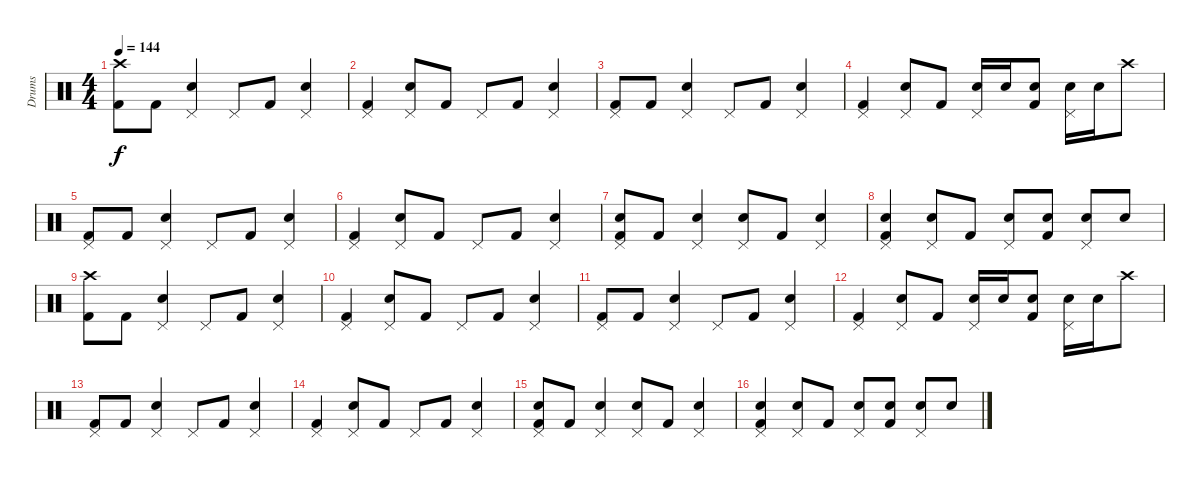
\track ("Drums" "Drums") {instrument percussion}
\staff {score}
\articulation defaults
\ts (4 4)
\tempo 144
\clef neutral
\ks c
("Crash high (hit)" "Kick (hit) 2").8{dy f} "Kick (hit) 2".8 ("Pedal Hi-Hat (hit)" "Electric Snare (hit)").4 "Pedal Hi-Hat (hit)".8 "Kick (hit) 2".8 ("Pedal Hi-Hat (hit)" "Electric Snare (hit)").4 |
("Kick (hit) 2" "Pedal Hi-Hat (hit)").4 ("Electric Snare (hit)" "Pedal Hi-Hat (hit)").8 "Kick (hit) 2".8 "Pedal Hi-Hat (hit)".8 "Kick (hit) 2".8 ("Electric Snare (hit)" "Pedal Hi-Hat (hit)").4 |
("Pedal Hi-Hat (hit)" "Kick (hit) 2").8 "Kick (hit) 2".8 ("Pedal Hi-Hat (hit)" "Electric Snare (hit)").4 "Pedal Hi-Hat (hit)".8 "Kick (hit) 2".8 ("Pedal Hi-Hat (hit)" "Electric Snare (hit)").4 |
("Kick (hit) 2" "Pedal Hi-Hat (hit)").4 ("Electric Snare (hit)" "Pedal Hi-Hat (hit)").8 "Kick (hit) 2".8 ("Electric Snare (hit)" "Pedal Hi-Hat (hit)").16 "Electric Snare (hit)".16 ("Electric Snare (hit)" "Kick (hit) 2").8 ("Electric Snare (hit)" "Pedal Hi-Hat (hit)").16 "Electric Snare (hit)".16 "Crash high (hit)".8 |
("Pedal Hi-Hat (hit)" "Kick (hit) 2").8 "Kick (hit) 2".8 ("Pedal Hi-Hat (hit)" "Electric Snare (hit)").4 "Pedal Hi-Hat (hit)".8 "Kick (hit) 2".8 ("Pedal Hi-Hat (hit)" "Electric Snare (hit)").4 |
("Kick (hit) 2" "Pedal Hi-Hat (hit)").4 ("Electric Snare (hit)" "Pedal Hi-Hat (hit)").8 "Kick (hit) 2".8 "Pedal Hi-Hat (hit)".8 "Kick (hit) 2".8 ("Electric Snare (hit)" "Pedal Hi-Hat (hit)").4 |
("Electric Snare (hit)" "Pedal Hi-Hat (hit)" "Kick (hit) 2").8 "Kick (hit) 2".8 ("Pedal Hi-Hat (hit)" "Electric Snare (hit)").4 ("Electric Snare (hit)" "Pedal Hi-Hat (hit)").8 "Kick (hit) 2".8 ("Pedal Hi-Hat (hit)" "Electric Snare (hit)").4 |
("Electric Snare (hit)" "Kick (hit) 2" "Pedal Hi-Hat (hit)").4 ("Electric Snare (hit)" "Pedal Hi-Hat (hit)").8 "Kick (hit) 2".8 ("Electric Snare (hit)" "Pedal Hi-Hat (hit)").8 ("Electric Snare (hit)" "Kick (hit) 2").8 ("Electric Snare (hit)" "Pedal Hi-Hat (hit)").8 "Electric Snare (hit)".8 |
("Crash high (hit)" "Kick (hit) 2").8 "Kick (hit) 2".8 ("Pedal Hi-Hat (hit)" "Electric Snare (hit)").4 "Pedal Hi-Hat (hit)".8 "Kick (hit) 2".8 ("Pedal Hi-Hat (hit)" "Electric Snare (hit)").4 |
("Kick (hit) 2" "Pedal Hi-Hat (hit)").4 ("Electric Snare (hit)" "Pedal Hi-Hat (hit)").8 "Kick (hit) 2".8 "Pedal Hi-Hat (hit)".8 "Kick (hit) 2".8 ("Electric Snare (hit)" "Pedal Hi-Hat (hit)").4 |
("Pedal Hi-Hat (hit)" "Kick (hit) 2").8 "Kick (hit) 2".8 ("Pedal Hi-Hat (hit)" "Electric Snare (hit)").4 "Pedal Hi-Hat (hit)".8 "Kick (hit) 2".8 ("Pedal Hi-Hat (hit)" "Electric Snare (hit)").4 |
("Kick (hit) 2" "Pedal Hi-Hat (hit)").4 ("Electric Snare (hit)" "Pedal Hi-Hat (hit)").8 "Kick (hit) 2".8 ("Electric Snare (hit)" "Pedal Hi-Hat (hit)").16 "Electric Snare (hit)".16 ("Electric Snare (hit)" "Kick (hit) 2").8 ("Electric Snare (hit)" "Pedal Hi-Hat (hit)").16 "Electric Snare (hit)".16 "Crash high (hit)".8 |
("Pedal Hi-Hat (hit)" "Kick (hit) 2").8 "Kick (hit) 2".8 ("Pedal Hi-Hat (hit)" "Electric Snare (hit)").4 "Pedal Hi-Hat (hit)".8 "Kick (hit) 2".8 ("Pedal Hi-Hat (hit)" "Electric Snare (hit)").4 |
("Kick (hit) 2" "Pedal Hi-Hat (hit)").4 ("Electric Snare (hit)" "Pedal Hi-Hat (hit)").8 "Kick (hit) 2".8 "Pedal Hi-Hat (hit)".8 "Kick (hit) 2".8 ("Electric Snare (hit)" "Pedal Hi-Hat (hit)").4 |
("Electric Snare (hit)" "Pedal Hi-Hat (hit)" "Kick (hit) 2").8 "Kick (hit) 2".8 ("Pedal Hi-Hat (hit)" "Electric Snare (hit)").4 ("Electric Snare (hit)" "Pedal Hi-Hat (hit)").8 "Kick (hit) 2".8 ("Pedal Hi-Hat (hit)" "Electric Snare (hit)").4 |
("Electric Snare (hit)" "Kick (hit) 2" "Pedal Hi-Hat (hit)").4 ("Electric Snare (hit)" "Pedal Hi-Hat (hit)").8 "Kick (hit) 2".8 ("Electric Snare (hit)" "Pedal Hi-Hat (hit)").8 ("Electric Snare (hit)" "Kick (hit) 2").8 ("Electric Snare (hit)" "Pedal Hi-Hat (hit)").8 "Electric Snare (hit)".8
